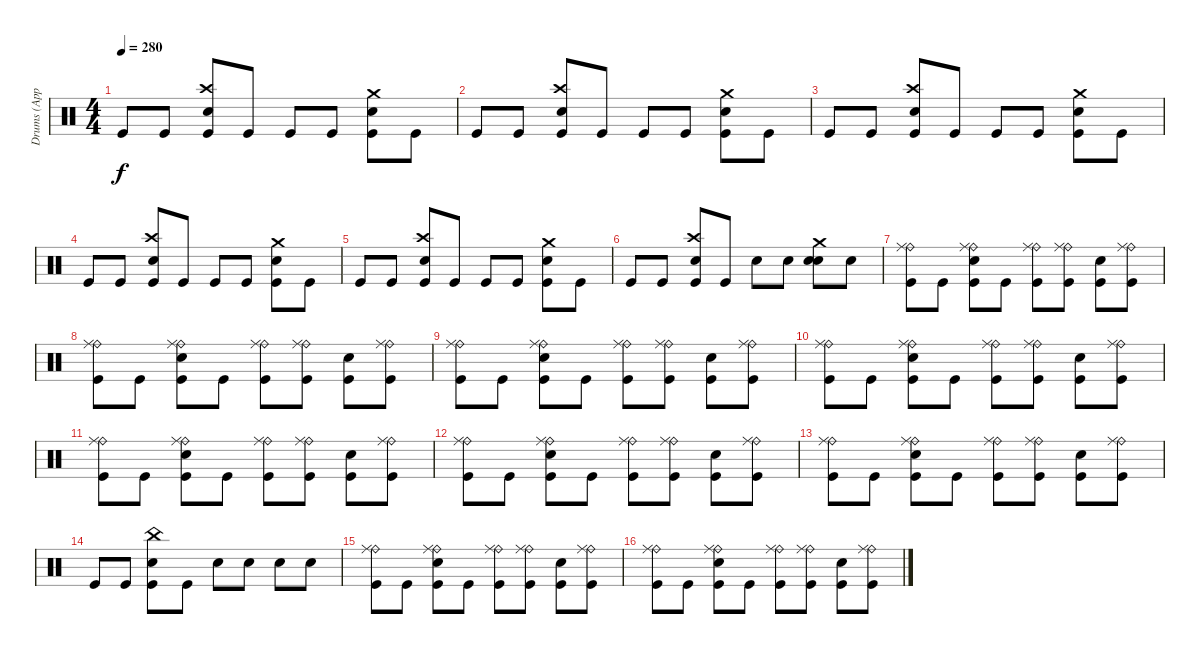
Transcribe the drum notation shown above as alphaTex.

\track ("Drums (Approx.)" "Drums (App") {instrument percussion}
\staff {score}
\articulation defaults
\ts (4 4)
\tempo 280
\clef neutral
\ks c "Kick (hit)".8{dy f} "Kick (hit)".8
("Crash high (hit)" "Electric Snare (hit)" "Kick (hit)").8 "Kick (hit)".8 "Kick (hit)".8 "Kick (hit)".8 ("Crash medium (hit)" "Electric Snare (hit)" "Kick (hit)").8 "Kick (hit)".8 |
"Kick (hit)".8 "Kick (hit)".8 ("Crash high (hit)" "Electric Snare (hit)" "Kick (hit)").8 "Kick (hit)".8 "Kick (hit)".8 "Kick (hit)".8 ("Crash medium (hit)" "Electric Snare (hit)" "Kick (hit)").8 "Kick (hit)".8 |
"Kick (hit)".8 "Kick (hit)".8 ("Crash high (hit)" "Electric Snare (hit)" "Kick (hit)").8 "Kick (hit)".8 "Kick (hit)".8 "Kick (hit)".8 ("Crash medium (hit)" "Electric Snare (hit)" "Kick (hit)").8 "Kick (hit)".8 |
"Kick (hit)".8 "Kick (hit)".8 ("Crash high (hit)" "Electric Snare (hit)" "Kick (hit)").8 "Kick (hit)".8 "Kick (hit)".8 "Kick (hit)".8 ("Crash medium (hit)" "Electric Snare (hit)" "Kick (hit)").8 "Kick (hit)".8 |
"Kick (hit)".8 "Kick (hit)".8 ("Crash high (hit)" "Electric Snare (hit)" "Kick (hit)").8 "Kick (hit)".8 "Kick (hit)".8 "Kick (hit)".8 ("Crash medium (hit)" "Electric Snare (hit)" "Kick (hit)").8 "Kick (hit)".8 |
"Kick (hit)".8 "Kick (hit)".8 ("Crash high (hit)" "Electric Snare (hit)" "Kick (hit)").8 "Kick (hit)".8 "Electric Snare (hit)".8 "Electric Snare (hit)".8 ("Crash medium (hit)" "Electric Snare (hit)" "Electric Snare (hit)").8 "Electric Snare (hit)".8 |
("Ride (bell)" "Ride (middle)" "Kick (hit)").8 "Kick (hit)".8 ("Ride (bell)" "Ride (middle)" "Electric Snare (hit)" "Kick (hit)").8 "Kick (hit)".8 ("Ride (bell)" "Ride (middle)" "Kick (hit)").8 ("Ride (bell)" "Ride (middle)" "Kick (hit)").8 ("Electric Snare (hit)" "Kick (hit)").8 ("Ride (bell)" "Ride (middle)" "Kick (hit)").8 |
("Ride (bell)" "Ride (middle)" "Kick (hit)").8 "Kick (hit)".8 ("Ride (bell)" "Ride (middle)" "Electric Snare (hit)" "Kick (hit)").8 "Kick (hit)".8 ("Ride (bell)" "Ride (middle)" "Kick (hit)").8 ("Ride (bell)" "Ride (middle)" "Kick (hit)").8 ("Electric Snare (hit)" "Kick (hit)").8 ("Ride (bell)" "Ride (middle)" "Kick (hit)").8 |
("Ride (bell)" "Ride (middle)" "Kick (hit)").8 "Kick (hit)".8 ("Ride (bell)" "Ride (middle)" "Electric Snare (hit)" "Kick (hit)").8 "Kick (hit)".8 ("Ride (bell)" "Ride (middle)" "Kick (hit)").8 ("Ride (bell)" "Ride (middle)" "Kick (hit)").8 ("Electric Snare (hit)" "Kick (hit)").8 ("Ride (bell)" "Ride (middle)" "Kick (hit)").8 |
("Ride (bell)" "Ride (middle)" "Kick (hit)").8 "Kick (hit)".8 ("Ride (bell)" "Ride (middle)" "Electric Snare (hit)" "Kick (hit)").8 "Kick (hit)".8 ("Ride (bell)" "Ride (middle)" "Kick (hit)").8 ("Ride (bell)" "Ride (middle)" "Kick (hit)").8 ("Electric Snare (hit)" "Kick (hit)").8 ("Ride (bell)" "Ride (middle)" "Kick (hit)").8 |
("Ride (bell)" "Ride (middle)" "Kick (hit)").8 "Kick (hit)".8 ("Ride (bell)" "Ride (middle)" "Electric Snare (hit)" "Kick (hit)").8 "Kick (hit)".8 ("Ride (bell)" "Ride (middle)" "Kick (hit)").8 ("Ride (bell)" "Ride (middle)" "Kick (hit)").8 ("Electric Snare (hit)" "Kick (hit)").8 ("Ride (bell)" "Ride (middle)" "Kick (hit)").8 |
("Ride (bell)" "Ride (middle)" "Kick (hit)").8 "Kick (hit)".8 ("Ride (bell)" "Ride (middle)" "Electric Snare (hit)" "Kick (hit)").8 "Kick (hit)".8 ("Ride (bell)" "Ride (middle)" "Kick (hit)").8 ("Ride (bell)" "Ride (middle)" "Kick (hit)").8 ("Electric Snare (hit)" "Kick (hit)").8 ("Ride (bell)" "Ride (middle)" "Kick (hit)").8 |
("Ride (bell)" "Ride (middle)" "Kick (hit)").8 "Kick (hit)".8 ("Ride (bell)" "Ride (middle)" "Electric Snare (hit)" "Kick (hit)").8 "Kick (hit)".8 ("Ride (bell)" "Ride (middle)" "Kick (hit)").8 ("Ride (bell)" "Ride (middle)" "Kick (hit)").8 ("Electric Snare (hit)" "Kick (hit)").8 ("Ride (bell)" "Ride (middle)" "Kick (hit)").8 |
"Kick (hit)".8 "Kick (hit)".8 ("China (hit)" "Electric Snare (hit)" "Kick (hit)").8 "Kick (hit)".8 "Electric Snare (hit)".8 "Electric Snare (hit)".8 "Electric Snare (hit)".8 "Electric Snare (hit)".8 |
("Ride (bell)" "Ride (middle)" "Kick (hit)").8 "Kick (hit)".8 ("Ride (bell)" "Ride (middle)" "Electric Snare (hit)" "Kick (hit)").8 "Kick (hit)".8 ("Ride (bell)" "Ride (middle)" "Kick (hit)").8 ("Ride (bell)" "Ride (middle)" "Kick (hit)").8 ("Electric Snare (hit)" "Kick (hit)").8 ("Ride (bell)" "Ride (middle)" "Kick (hit)").8 |
("Ride (bell)" "Ride (middle)" "Kick (hit)").8 "Kick (hit)".8 ("Ride (bell)" "Ride (middle)" "Electric Snare (hit)" "Kick (hit)").8 "Kick (hit)".8 ("Ride (bell)" "Ride (middle)" "Kick (hit)").8 ("Ride (bell)" "Ride (middle)" "Kick (hit)").8 ("Electric Snare (hit)" "Kick (hit)").8 ("Ride (bell)" "Ride (middle)" "Kick (hit)").8
